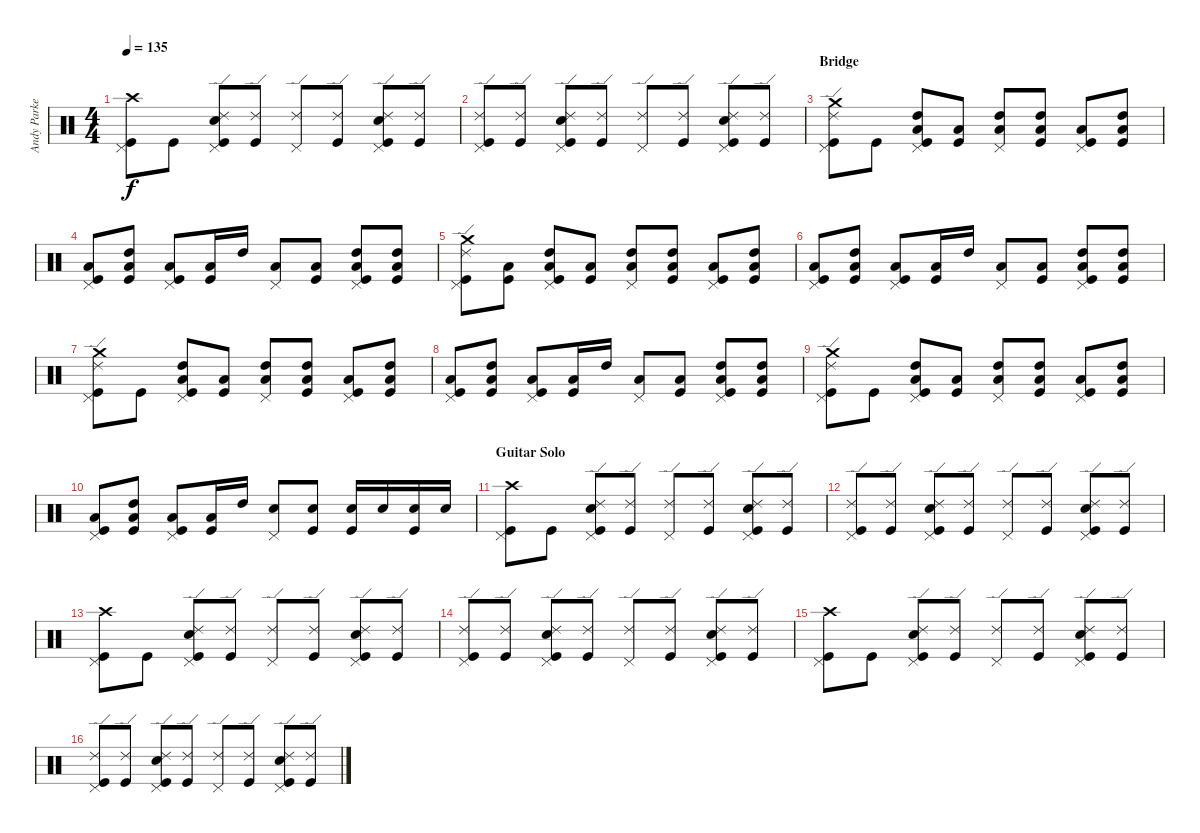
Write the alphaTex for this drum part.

\track ("Andy Parker" "Andy Parke") {instrument percussion}
\staff {score}
\articulation defaults
\ts (4 4)
\tempo 135
\clef neutral
\ks c
("Crash high (hit)" "Pedal Hi-Hat (hit)" "Kick (hit)").8{dy f} "Kick (hit)".8 ("Ride (edge) 2" "Snare (hit) 2" "Pedal Hi-Hat (hit)" "Kick (hit)").8 ("Ride (edge) 2" "Kick (hit)").8 ("Ride (edge) 2" "Pedal Hi-Hat (hit)").8 ("Ride (edge) 2" "Kick (hit)").8 ("Ride (edge) 2" "Snare (hit) 2" "Pedal Hi-Hat (hit)" "Kick (hit)").8 ("Ride (edge) 2" "Kick (hit)").8 |
("Ride (edge) 2" "Pedal Hi-Hat (hit)" "Kick (hit)").8 ("Ride (edge) 2" "Kick (hit)").8 ("Ride (edge) 2" "Snare (hit) 2" "Pedal Hi-Hat (hit)" "Kick (hit)").8 ("Ride (edge) 2" "Kick (hit)").8 ("Ride (edge) 2" "Pedal Hi-Hat (hit)").8 ("Ride (edge) 2" "Kick (hit)").8 ("Ride (edge) 2" "Snare (hit) 2" "Pedal Hi-Hat (hit)" "Kick (hit)").8 ("Ride (edge) 2" "Kick (hit)").8 |
\section ("" "Bridge")
("Crash medium (hit)" "Ride (edge) 2" "Pedal Hi-Hat (hit)" "Kick (hit)").8 "Kick (hit)".8 ("High Tom (hit)" "Low Floor Tom (hit)" "Pedal Hi-Hat (hit)" "Kick (hit)").8 ("Low Floor Tom (hit)" "Kick (hit)").8 ("High Tom (hit)" "Low Floor Tom (hit)" "Pedal Hi-Hat (hit)").8 ("High Tom (hit)" "Low Floor Tom (hit)" "Kick (hit)").8 ("Low Floor Tom (hit)" "Pedal Hi-Hat (hit)" "Kick (hit)").8 ("High Tom (hit)" "Low Floor Tom (hit)" "Kick (hit)").8 |
("Low Floor Tom (hit)" "Pedal Hi-Hat (hit)" "Kick (hit)").8 ("High Tom (hit)" "Low Floor Tom (hit)" "Kick (hit)").8 ("Low Floor Tom (hit)" "Pedal Hi-Hat (hit)" "Kick (hit)").8 ("Low Floor Tom (hit)" "Kick (hit)").16 "High Tom (hit)".16 ("Low Floor Tom (hit)" "Pedal Hi-Hat (hit)").8 ("Low Floor Tom (hit)" "Kick (hit)").8 ("High Tom (hit)" "Low Floor Tom (hit)" "Pedal Hi-Hat (hit)" "Kick (hit)").8 ("High Tom (hit)" "Low Floor Tom (hit)" "Kick (hit)").8 |
("Crash medium (hit)" "Ride (edge) 2" "Pedal Hi-Hat (hit)" "Kick (hit)").8 ("Low Floor Tom (hit)" "Kick (hit)").8 ("High Tom (hit)" "Low Floor Tom (hit)" "Pedal Hi-Hat (hit)" "Kick (hit)").8 ("Low Floor Tom (hit)" "Kick (hit)").8 ("High Tom (hit)" "Low Floor Tom (hit)" "Pedal Hi-Hat (hit)").8 ("High Tom (hit)" "Low Floor Tom (hit)" "Kick (hit)").8 ("Low Floor Tom (hit)" "Pedal Hi-Hat (hit)" "Kick (hit)").8 ("High Tom (hit)" "Low Floor Tom (hit)" "Kick (hit)").8 |
("Low Floor Tom (hit)" "Pedal Hi-Hat (hit)" "Kick (hit)").8 ("High Tom (hit)" "Low Floor Tom (hit)" "Kick (hit)").8 ("Low Floor Tom (hit)" "Pedal Hi-Hat (hit)" "Kick (hit)").8 ("Low Floor Tom (hit)" "Kick (hit)").16 "High Tom (hit)".16 ("Low Floor Tom (hit)" "Pedal Hi-Hat (hit)").8 ("Low Floor Tom (hit)" "Kick (hit)").8 ("High Tom (hit)" "Low Floor Tom (hit)" "Pedal Hi-Hat (hit)" "Kick (hit)").8 ("High Tom (hit)" "Low Floor Tom (hit)" "Kick (hit)").8 |
("Crash medium (hit)" "Ride (edge) 2" "Pedal Hi-Hat (hit)" "Kick (hit)").8 "Kick (hit)".8 ("High Tom (hit)" "Low Floor Tom (hit)" "Pedal Hi-Hat (hit)" "Kick (hit)").8 ("Low Floor Tom (hit)" "Kick (hit)").8 ("High Tom (hit)" "Low Floor Tom (hit)" "Pedal Hi-Hat (hit)").8 ("High Tom (hit)" "Low Floor Tom (hit)" "Kick (hit)").8 ("Low Floor Tom (hit)" "Pedal Hi-Hat (hit)" "Kick (hit)").8 ("High Tom (hit)" "Low Floor Tom (hit)" "Kick (hit)").8 |
("Low Floor Tom (hit)" "Pedal Hi-Hat (hit)" "Kick (hit)").8 ("High Tom (hit)" "Low Floor Tom (hit)" "Kick (hit)").8 ("Low Floor Tom (hit)" "Pedal Hi-Hat (hit)" "Kick (hit)").8 ("Low Floor Tom (hit)" "Kick (hit)").16 "High Tom (hit)".16 ("Low Floor Tom (hit)" "Pedal Hi-Hat (hit)").8 ("Low Floor Tom (hit)" "Kick (hit)").8 ("High Tom (hit)" "Low Floor Tom (hit)" "Pedal Hi-Hat (hit)" "Kick (hit)").8 ("High Tom (hit)" "Low Floor Tom (hit)" "Kick (hit)").8 |
("Crash medium (hit)" "Ride (edge) 2" "Pedal Hi-Hat (hit)" "Kick (hit)").8 "Kick (hit)".8 ("High Tom (hit)" "Low Floor Tom (hit)" "Pedal Hi-Hat (hit)" "Kick (hit)").8 ("Low Floor Tom (hit)" "Kick (hit)").8 ("High Tom (hit)" "Low Floor Tom (hit)" "Pedal Hi-Hat (hit)").8 ("High Tom (hit)" "Low Floor Tom (hit)" "Kick (hit)").8 ("Low Floor Tom (hit)" "Pedal Hi-Hat (hit)" "Kick (hit)").8 ("High Tom (hit)" "Low Floor Tom (hit)" "Kick (hit)").8 |
("Low Floor Tom (hit)" "Pedal Hi-Hat (hit)" "Kick (hit)").8 ("High Tom (hit)" "Low Floor Tom (hit)" "Kick (hit)").8 ("Low Floor Tom (hit)" "Pedal Hi-Hat (hit)" "Kick (hit)").8 ("Low Floor Tom (hit)" "Kick (hit)").16 "High Tom (hit)".16 ("Snare (hit) 2" "Pedal Hi-Hat (hit)").8 ("Snare (hit) 2" "Kick (hit)").8 ("Snare (hit) 2" "Kick (hit)").16 "Snare (hit) 2".16 ("Snare (hit) 2" "Kick (hit)").16 "Snare (hit) 2".16 |
\section ("" "Guitar Solo")
("Crash high (hit)" "Pedal Hi-Hat (hit)" "Kick (hit)").8 "Kick (hit)".8 ("Ride (edge) 2" "Snare (hit) 2" "Pedal Hi-Hat (hit)" "Kick (hit)").8 ("Ride (edge) 2" "Kick (hit)").8 ("Ride (edge) 2" "Pedal Hi-Hat (hit)").8 ("Ride (edge) 2" "Kick (hit)").8 ("Ride (edge) 2" "Snare (hit) 2" "Pedal Hi-Hat (hit)" "Kick (hit)").8 ("Ride (edge) 2" "Kick (hit)").8 |
("Ride (edge) 2" "Pedal Hi-Hat (hit)" "Kick (hit)").8 ("Ride (edge) 2" "Kick (hit)").8 ("Ride (edge) 2" "Snare (hit) 2" "Pedal Hi-Hat (hit)" "Kick (hit)").8 ("Ride (edge) 2" "Kick (hit)").8 ("Ride (edge) 2" "Pedal Hi-Hat (hit)").8 ("Ride (edge) 2" "Kick (hit)").8 ("Ride (edge) 2" "Snare (hit) 2" "Pedal Hi-Hat (hit)" "Kick (hit)").8 ("Ride (edge) 2" "Kick (hit)").8 |
("Crash high (hit)" "Pedal Hi-Hat (hit)" "Kick (hit)").8 "Kick (hit)".8 ("Ride (edge) 2" "Snare (hit) 2" "Pedal Hi-Hat (hit)" "Kick (hit)").8 ("Ride (edge) 2" "Kick (hit)").8 ("Ride (edge) 2" "Pedal Hi-Hat (hit)").8 ("Ride (edge) 2" "Kick (hit)").8 ("Ride (edge) 2" "Snare (hit) 2" "Pedal Hi-Hat (hit)" "Kick (hit)").8 ("Ride (edge) 2" "Kick (hit)").8 |
("Ride (edge) 2" "Pedal Hi-Hat (hit)" "Kick (hit)").8 ("Ride (edge) 2" "Kick (hit)").8 ("Ride (edge) 2" "Snare (hit) 2" "Pedal Hi-Hat (hit)" "Kick (hit)").8 ("Ride (edge) 2" "Kick (hit)").8 ("Ride (edge) 2" "Pedal Hi-Hat (hit)").8 ("Ride (edge) 2" "Kick (hit)").8 ("Ride (edge) 2" "Snare (hit) 2" "Pedal Hi-Hat (hit)" "Kick (hit)").8 ("Ride (edge) 2" "Kick (hit)").8 |
("Crash high (hit)" "Pedal Hi-Hat (hit)" "Kick (hit)").8 "Kick (hit)".8 ("Ride (edge) 2" "Snare (hit) 2" "Pedal Hi-Hat (hit)" "Kick (hit)").8 ("Ride (edge) 2" "Kick (hit)").8 ("Ride (edge) 2" "Pedal Hi-Hat (hit)").8 ("Ride (edge) 2" "Kick (hit)").8 ("Ride (edge) 2" "Snare (hit) 2" "Pedal Hi-Hat (hit)" "Kick (hit)").8 ("Ride (edge) 2" "Kick (hit)").8 |
("Ride (edge) 2" "Pedal Hi-Hat (hit)" "Kick (hit)").8 ("Ride (edge) 2" "Kick (hit)").8 ("Ride (edge) 2" "Snare (hit) 2" "Pedal Hi-Hat (hit)" "Kick (hit)").8 ("Ride (edge) 2" "Kick (hit)").8 ("Ride (edge) 2" "Pedal Hi-Hat (hit)").8 ("Ride (edge) 2" "Kick (hit)").8 ("Ride (edge) 2" "Snare (hit) 2" "Pedal Hi-Hat (hit)" "Kick (hit)").8 ("Ride (edge) 2" "Kick (hit)").8
